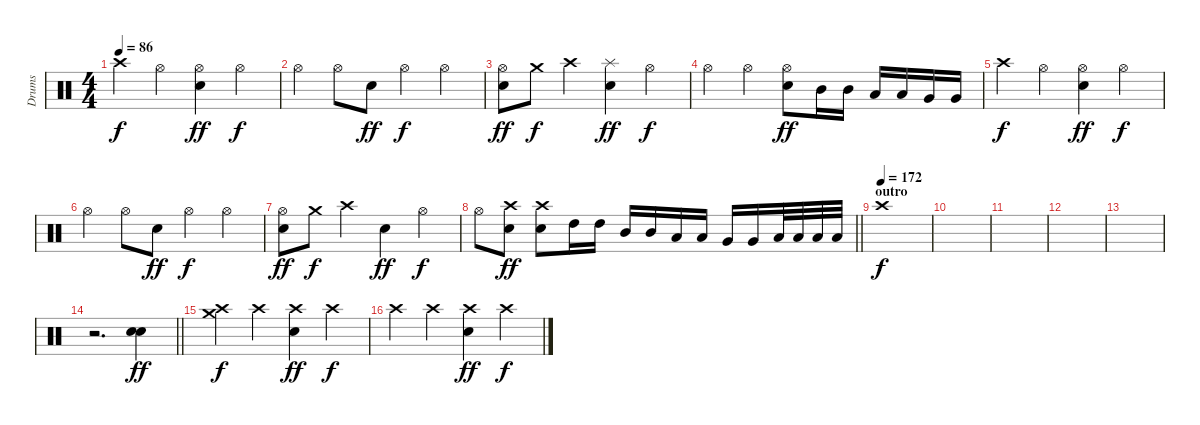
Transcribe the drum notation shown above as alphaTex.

\track ("Drums" "Drums") {instrument percussion}
\staff {score}
\articulation defaults
\ts (4 4)
\tempo 86
\clef neutral
\ks c "Crash high (hit)".4{dy f} "Hi-Hat (open)".4
("Hi-Hat (open)" "Snare (hit) 2").4{dy ff} "Hi-Hat (open)".4{dy f} |
"Hi-Hat (open)".4 "Hi-Hat (open)".8 "Snare (hit) 2".8{dy ff} "Hi-Hat (open)".4{dy f} "Hi-Hat (open)".4 |
("Hi-Hat (open)" "Snare (hit) 2").8{dy ff} "Crash medium (hit)".8{dy f} "Crash high (hit)".4 ("Splash (hit)" "Snare (hit) 2").4{dy ff} "Hi-Hat (open)".4{dy f} |
"Hi-Hat (open)".4 "Hi-Hat (open)".4 ("Hi-Hat (open)" "Snare (hit) 2").8{dy ff} "Mid Tom (hit)".16 "Mid Tom (hit)".16 "Low Tom (hit)".16 "Low Tom (hit)".16 "Very Low Tom (hit)".16 "Very Low Tom (hit)".16 |
"Crash high (hit)".4{dy f} "Hi-Hat (open)".4 ("Hi-Hat (open)" "Snare (hit) 2").4{dy ff} "Hi-Hat (open)".4{dy f} |
"Hi-Hat (open)".4 "Hi-Hat (open)".8 "Snare (hit) 2".8{dy ff} "Hi-Hat (open)".4{dy f} "Hi-Hat (open)".4 |
("Hi-Hat (open)" "Snare (hit) 2").8{dy ff} "Crash medium (hit)".8{dy f} "Crash high (hit)".4 "Snare (hit) 2".4{dy ff} "Hi-Hat (open)".4{dy f} |
\barLineRight lightlight "Hi-Hat (open)".8
("Crash high (hit)" "Snare (hit) 2").8{dy ff} ("Crash high (hit)" "Snare (hit) 2").8 "High Tom (hit)".16 "High Tom (hit)".16 "Mid Tom (hit)".16 "Mid Tom (hit)".16 "Low Tom (hit)".16 "Low Tom (hit)".16 "Very Low Tom (hit)".16 "Very Low Tom (hit)".16 "Low Floor Tom (hit)".32 "Low Floor Tom (hit)".32 "Low Floor Tom (hit)".32 "Low Floor Tom (hit)".32 |
\section ("" "outro")
\tempo (172)
"Crash high (hit)".1{dy f} |
|
|
|
|
\barLineRight lightlight
r.2{d} ("Snare (hit) 2" "Snare (hit) 2").4{dy ff} |
\section ("" "")
("Crash high (hit)" "Crash medium (hit)").4{dy f} "Crash high (hit)".4 ("Crash high (hit)" "Snare (hit) 2").4{dy ff} "Crash high (hit)".4{dy f} |
"Crash high (hit)".4 "Crash high (hit)".4 ("Crash high (hit)" "Snare (hit) 2").4{dy ff} "Crash high (hit)".4{dy f}
